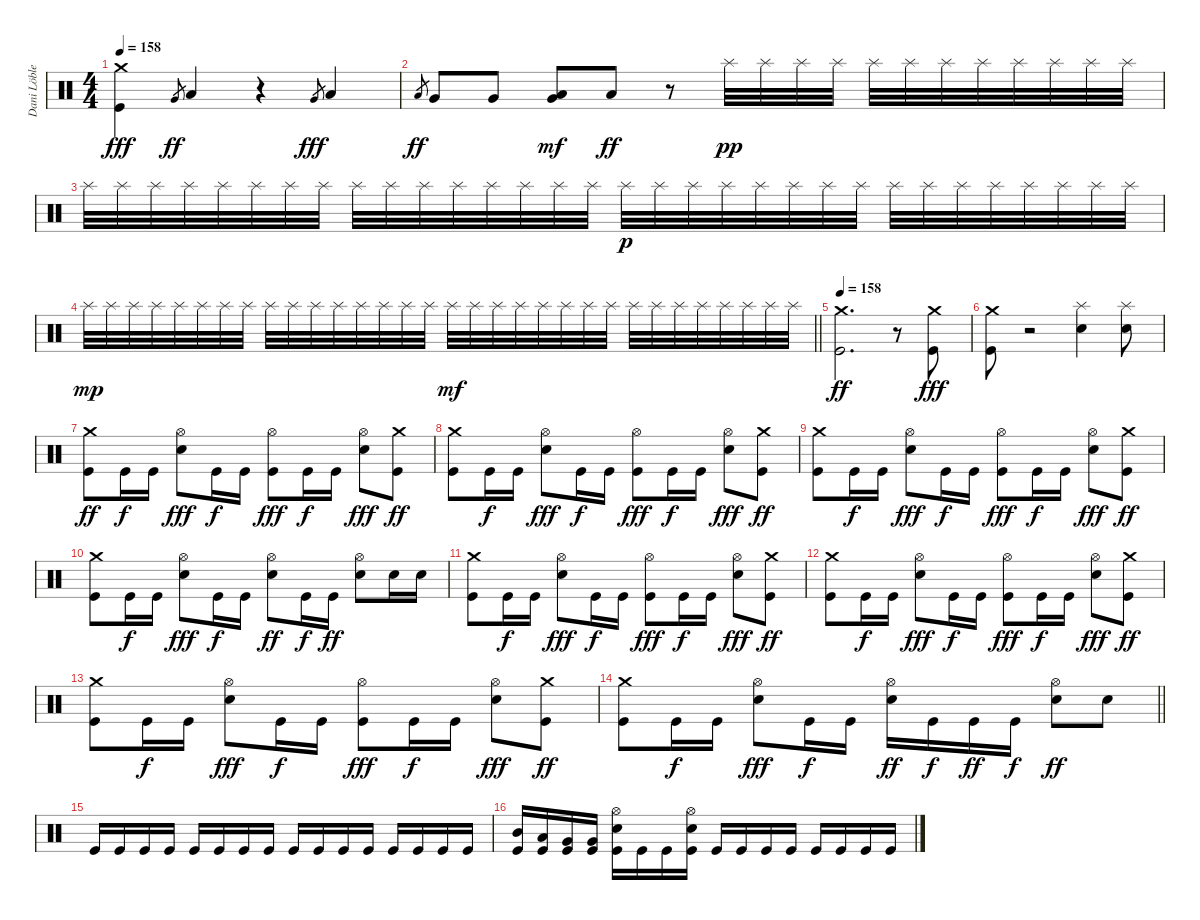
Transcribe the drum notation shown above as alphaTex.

\track ("Dani Löble" "Dani Löble") {instrument percussion}
\staff {score}
\articulation defaults
\ts (4 4)
\tempo 158
\clef neutral
\ks c
("Crash medium (hit)" "Kick (hit)").4{dy fff} "Very Low Tom (hit)".8{gr dy ff} "Low Tom (hit)".4 r.4 "Very Low Tom (hit)".8{gr dy fff} "Low Tom (hit)".4 |
"Low Tom (hit)".8{gr dy ff} "Very Low Tom (hit)".8 "Very Low Tom (hit)".8 ("Very Low Tom (hit)" "Low Floor Tom (hit)").8{dy mf} "Low Floor Tom (hit)".8{dy ff} r.8 "Splash (hit)".32{dy pp} "Splash (hit)".32 "Splash (hit)".32 "Splash (hit)".32 "Splash (hit)".32 "Splash (hit)".32 "Splash (hit)".32 "Splash (hit)".32 "Splash (hit)".32 "Splash (hit)".32 "Splash (hit)".32 "Splash (hit)".32 |
"Splash (hit)".32 "Splash (hit)".32 "Splash (hit)".32 "Splash (hit)".32 "Splash (hit)".32 "Splash (hit)".32 "Splash (hit)".32 "Splash (hit)".32 "Splash (hit)".32 "Splash (hit)".32 "Splash (hit)".32 "Splash (hit)".32 "Splash (hit)".32 "Splash (hit)".32 "Splash (hit)".32 "Splash (hit)".32 "Splash (hit)".32{dy p} "Splash (hit)".32 "Splash (hit)".32 "Splash (hit)".32 "Splash (hit)".32 "Splash (hit)".32 "Splash (hit)".32 "Splash (hit)".32 "Splash (hit)".32 "Splash (hit)".32 "Splash (hit)".32 "Splash (hit)".32 "Splash (hit)".32 "Splash (hit)".32 "Splash (hit)".32 "Splash (hit)".32 |
\barLineRight lightlight "Splash (hit)".32{dy mp} "Splash (hit)".32 "Splash (hit)".32 "Splash (hit)".32 "Splash (hit)".32 "Splash (hit)".32 "Splash (hit)".32 "Splash (hit)".32 "Splash (hit)".32 "Splash (hit)".32 "Splash (hit)".32 "Splash (hit)".32 "Splash (hit)".32 "Splash (hit)".32 "Splash (hit)".32 "Splash (hit)".32 "Splash (hit)".32{dy mf} "Splash (hit)".32 "Splash (hit)".32 "Splash (hit)".32 "Splash (hit)".32 "Splash (hit)".32 "Splash (hit)".32 "Splash (hit)".32 "Splash (hit)".32 "Splash (hit)".32 "Splash (hit)".32 "Splash (hit)".32 "Splash (hit)".32 "Splash (hit)".32 "Splash (hit)".32 "Splash (hit)".32
|
\section ("" "")
\tempo 158
("Crash medium (hit)" "Kick (hit)").2{d dy ff} r.8 ("Crash medium (hit)" "Kick (hit)").8{dy fff} |
("Crash medium (hit)" "Kick (hit)").8 r.2 ("Splash (hit)" "Electric Snare (hit)").4 ("Splash (hit)" "Electric Snare (hit)").8 |
("Crash medium (hit)" "Kick (hit)").8{dy ff} "Kick (hit)".16{dy f} "Kick (hit)".16 ("Hi-Hat (open)" "Electric Snare (hit)").8{dy fff} "Kick (hit)".16{dy f} "Kick (hit)".16 ("Hi-Hat (open)" "Kick (hit)").8{dy fff} "Kick (hit)".16{dy f} "Kick (hit)".16 ("Hi-Hat (open)" "Electric Snare (hit)").8{dy fff} ("Crash medium (hit)" "Kick (hit)").8{dy ff} |
("Crash medium (hit)" "Kick (hit)").8 "Kick (hit)".16{dy f} "Kick (hit)".16 ("Hi-Hat (open)" "Electric Snare (hit)").8{dy fff} "Kick (hit)".16{dy f} "Kick (hit)".16 ("Hi-Hat (open)" "Kick (hit)").8{dy fff} "Kick (hit)".16{dy f} "Kick (hit)".16 ("Hi-Hat (open)" "Electric Snare (hit)").8{dy fff} ("Crash medium (hit)" "Kick (hit)").8{dy ff} |
("Crash medium (hit)" "Kick (hit)").8 "Kick (hit)".16{dy f} "Kick (hit)".16 ("Hi-Hat (open)" "Electric Snare (hit)").8{dy fff} "Kick (hit)".16{dy f} "Kick (hit)".16 ("Hi-Hat (open)" "Kick (hit)").8{dy fff} "Kick (hit)".16{dy f} "Kick (hit)".16 ("Hi-Hat (open)" "Electric Snare (hit)").8{dy fff} ("Crash medium (hit)" "Kick (hit)").8{dy ff} |
("Crash medium (hit)" "Kick (hit)").8 "Kick (hit)".16{dy f} "Kick (hit)".16 ("Hi-Hat (open)" "Electric Snare (hit)").8{dy fff} "Kick (hit)".16{dy f} "Kick (hit)".16 ("Hi-Hat (open)" "Electric Snare (hit)").8{dy ff} "Kick (hit)".16{dy f} "Kick (hit)".16{dy ff} ("Hi-Hat (open)" "Electric Snare (hit)").8 "Electric Snare (hit)".16 "Electric Snare (hit)".16 |
("Crash medium (hit)" "Kick (hit)").8 "Kick (hit)".16{dy f} "Kick (hit)".16 ("Hi-Hat (open)" "Electric Snare (hit)").8{dy fff} "Kick (hit)".16{dy f} "Kick (hit)".16 ("Hi-Hat (open)" "Kick (hit)").8{dy fff} "Kick (hit)".16{dy f} "Kick (hit)".16 ("Hi-Hat (open)" "Electric Snare (hit)").8{dy fff} ("Crash medium (hit)" "Kick (hit)").8{dy ff} |
("Crash medium (hit)" "Kick (hit)").8 "Kick (hit)".16{dy f} "Kick (hit)".16 ("Hi-Hat (open)" "Electric Snare (hit)").8{dy fff} "Kick (hit)".16{dy f} "Kick (hit)".16 ("Hi-Hat (open)" "Kick (hit)").8{dy fff} "Kick (hit)".16{dy f} "Kick (hit)".16 ("Hi-Hat (open)" "Electric Snare (hit)").8{dy fff} ("Crash medium (hit)" "Kick (hit)").8{dy ff} |
("Crash medium (hit)" "Kick (hit)").8 "Kick (hit)".16{dy f} "Kick (hit)".16 ("Hi-Hat (open)" "Electric Snare (hit)").8{dy fff} "Kick (hit)".16{dy f} "Kick (hit)".16 ("Hi-Hat (open)" "Kick (hit)").8{dy fff} "Kick (hit)".16{dy f} "Kick (hit)".16 ("Hi-Hat (open)" "Electric Snare (hit)").8{dy fff} ("Crash medium (hit)" "Kick (hit)").8{dy ff} |
\barLineRight lightlight
("Crash medium (hit)" "Kick (hit)").8 "Kick (hit)".16{dy f} "Kick (hit)".16 ("Hi-Hat (open)" "Electric Snare (hit)").8{dy fff} "Kick (hit)".16{dy f} "Kick (hit)".16 ("Hi-Hat (open)" "Electric Snare (hit)").16{dy ff} "Kick (hit)".16{dy f} "Kick (hit)".16{dy ff} "Kick (hit)".16{dy f} ("Hi-Hat (open)" "Electric Snare (hit)").8{dy ff} "Electric Snare (hit)".8 |
\section ("" "")
"Kick (hit)".16 "Kick (hit)".16 "Kick (hit)".16 "Kick (hit)".16 "Kick (hit)".16 "Kick (hit)".16 "Kick (hit)".16 "Kick (hit)".16 "Kick (hit)".16 "Kick (hit)".16 "Kick (hit)".16 "Kick (hit)".16 "Kick (hit)".16 "Kick (hit)".16 "Kick (hit)".16 "Kick (hit)".16 |
("Mid Tom (hit)" "Kick (hit)").16 ("Low Tom (hit)" "Kick (hit)").16 ("Very Low Tom (hit)" "Kick (hit)").16 ("Very Low Tom (hit)" "Kick (hit)").16 ("Hi-Hat (open)" "Electric Snare (hit)" "Kick (hit)").16 "Kick (hit)".16 "Kick (hit)".16 ("Hi-Hat (open)" "Electric Snare (hit)" "Kick (hit)").16 "Kick (hit)".16 "Kick (hit)".16 "Kick (hit)".16 "Kick (hit)".16 "Kick (hit)".16 "Kick (hit)".16 "Kick (hit)".16 "Kick (hit)".16
